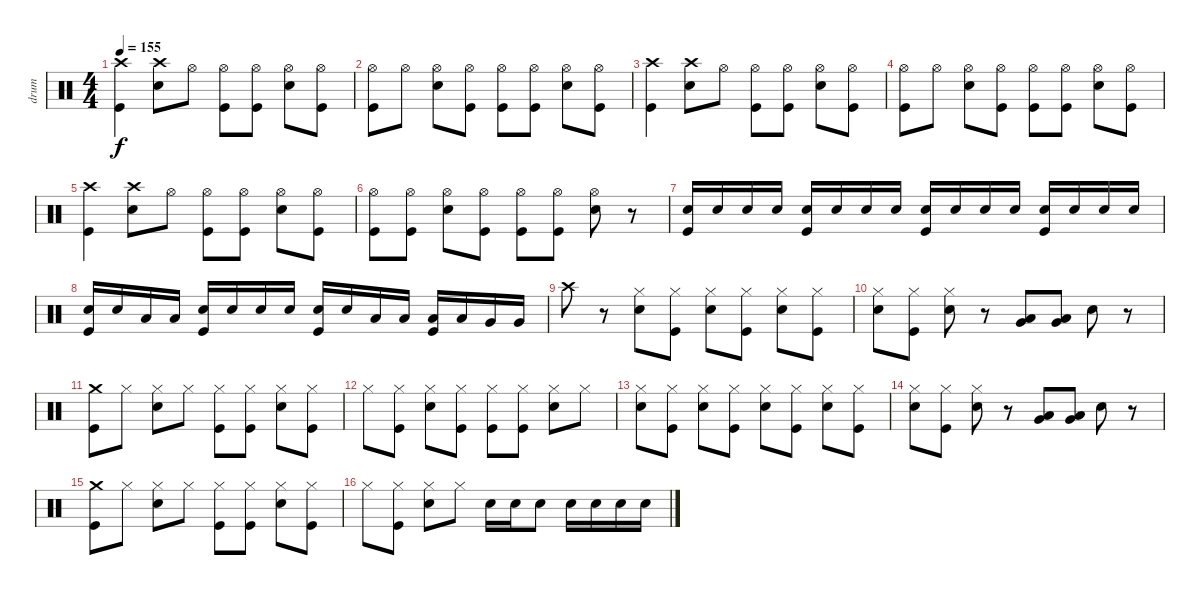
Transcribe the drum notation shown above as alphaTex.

\track ("drum" "drum") {instrument percussion}
\staff {score}
\articulation defaults
\ts (4 4)
\tempo 155
\clef neutral
\ks c
("Crash high (hit)" "Kick (hit)").4{dy f} ("Crash high (hit)" "Snare (hit) 2").8 "Hi-Hat (open)".8 ("Hi-Hat (open)" "Kick (hit)").8 ("Hi-Hat (open)" "Kick (hit)").8 ("Hi-Hat (open)" "Snare (hit) 2").8 ("Hi-Hat (open)" "Kick (hit)").8 |
("Hi-Hat (open)" "Kick (hit)").8 "Hi-Hat (open)".8 ("Hi-Hat (open)" "Snare (hit) 2").8 ("Hi-Hat (open)" "Kick (hit)").8 ("Hi-Hat (open)" "Kick (hit)").8 ("Hi-Hat (open)" "Kick (hit)").8 ("Hi-Hat (open)" "Snare (hit) 2").8 ("Hi-Hat (open)" "Kick (hit)").8 |
("Crash high (hit)" "Kick (hit)").4 ("Crash high (hit)" "Snare (hit) 2").8 "Hi-Hat (open)".8 ("Hi-Hat (open)" "Kick (hit)").8 ("Hi-Hat (open)" "Kick (hit)").8 ("Hi-Hat (open)" "Snare (hit) 2").8 ("Hi-Hat (open)" "Kick (hit)").8 |
("Hi-Hat (open)" "Kick (hit)").8 "Hi-Hat (open)".8 ("Hi-Hat (open)" "Snare (hit) 2").8 ("Hi-Hat (open)" "Kick (hit)").8 ("Hi-Hat (open)" "Kick (hit)").8 ("Hi-Hat (open)" "Kick (hit)").8 ("Hi-Hat (open)" "Snare (hit) 2").8 ("Hi-Hat (open)" "Kick (hit)").8 |
("Crash high (hit)" "Kick (hit)").4 ("Crash high (hit)" "Snare (hit) 2").8 "Hi-Hat (open)".8 ("Hi-Hat (open)" "Kick (hit)").8 ("Hi-Hat (open)" "Kick (hit)").8 ("Hi-Hat (open)" "Snare (hit) 2").8 ("Hi-Hat (open)" "Kick (hit)").8 |
("Hi-Hat (open)" "Kick (hit)").8 ("Hi-Hat (open)" "Kick (hit)").8 ("Hi-Hat (open)" "Snare (hit) 2").8 ("Hi-Hat (open)" "Kick (hit)").8 ("Hi-Hat (open)" "Kick (hit)").8 ("Hi-Hat (open)" "Kick (hit)").8 ("Hi-Hat (open)" "Snare (hit) 2").8 r.8 |
("Snare (hit) 2" "Kick (hit)").16 "Snare (hit) 2".16 "Snare (hit) 2".16 "Snare (hit) 2".16 ("Snare (hit) 2" "Kick (hit)").16 "Snare (hit) 2".16 "Snare (hit) 2".16 "Snare (hit) 2".16 ("Snare (hit) 2" "Kick (hit)").16 "Snare (hit) 2".16 "Snare (hit) 2".16 "Snare (hit) 2".16 ("Snare (hit) 2" "Kick (hit)").16 "Snare (hit) 2".16 "Snare (hit) 2".16 "Snare (hit) 2".16 |
("Snare (hit) 2" "Kick (hit)").16 "Snare (hit) 2".16 "Low Tom (hit)".16 "Low Tom (hit)".16 ("Snare (hit) 2" "Kick (hit)").16 "Snare (hit) 2".16 "Snare (hit) 2".16 "Snare (hit) 2".16 ("Snare (hit) 2" "Kick (hit)").16 "Snare (hit) 2".16 "Low Tom (hit)".16 "Low Tom (hit)".16 ("Low Tom (hit)" "Kick (hit)").16 "Low Tom (hit)".16 "Very Low Tom (hit)".16 "Very Low Tom (hit)".16 |
"Crash high (hit)".8 r.8 ("Hi-Hat (closed)" "Snare (hit) 2").8 ("Hi-Hat (closed)" "Kick (hit)").8 ("Hi-Hat (closed)" "Snare (hit) 2").8 ("Hi-Hat (closed)" "Kick (hit)").8 ("Hi-Hat (closed)" "Snare (hit) 2").8 ("Hi-Hat (closed)" "Kick (hit)").8 |
("Hi-Hat (closed)" "Snare (hit) 2").8 ("Hi-Hat (closed)" "Kick (hit)").8 ("Hi-Hat (closed)" "Snare (hit) 2").8 r.8 ("Low Tom (hit)" "Very Low Tom (hit)").8 ("Low Tom (hit)" "Very Low Tom (hit)").8 "Snare (hit) 2".8 r.8 |
("Crash medium (hit)" "Kick (hit)").8 "Hi-Hat (closed)".8 ("Hi-Hat (closed)" "Snare (hit) 2").8 "Hi-Hat (closed)".8 ("Hi-Hat (closed)" "Kick (hit)").8 ("Hi-Hat (closed)" "Kick (hit)").8 ("Hi-Hat (closed)" "Snare (hit) 2").8 ("Hi-Hat (closed)" "Kick (hit)").8 |
"Hi-Hat (closed)".8 ("Hi-Hat (closed)" "Kick (hit)").8 ("Hi-Hat (closed)" "Snare (hit) 2").8 ("Hi-Hat (closed)" "Kick (hit)").8 ("Hi-Hat (closed)" "Kick (hit)").8 ("Hi-Hat (closed)" "Kick (hit)").8 ("Hi-Hat (closed)" "Snare (hit) 2").8 "Hi-Hat (closed)".8 |
("Hi-Hat (closed)" "Snare (hit) 2").8 ("Hi-Hat (closed)" "Kick (hit)").8 ("Hi-Hat (closed)" "Snare (hit) 2").8 ("Hi-Hat (closed)" "Kick (hit)").8 ("Hi-Hat (closed)" "Snare (hit) 2").8 ("Hi-Hat (closed)" "Kick (hit)").8 ("Hi-Hat (closed)" "Snare (hit) 2").8 ("Hi-Hat (closed)" "Kick (hit)").8 |
("Hi-Hat (closed)" "Snare (hit) 2").8 ("Hi-Hat (closed)" "Kick (hit)").8 ("Hi-Hat (closed)" "Snare (hit) 2").8 r.8 ("Low Tom (hit)" "Very Low Tom (hit)").8 ("Low Tom (hit)" "Very Low Tom (hit)").8 "Snare (hit) 2".8 r.8 |
("Crash medium (hit)" "Kick (hit)").8 "Hi-Hat (closed)".8 ("Hi-Hat (closed)" "Snare (hit) 2").8 "Hi-Hat (closed)".8 ("Hi-Hat (closed)" "Kick (hit)").8 ("Hi-Hat (closed)" "Kick (hit)").8 ("Hi-Hat (closed)" "Snare (hit) 2").8 ("Hi-Hat (closed)" "Kick (hit)").8 |
"Hi-Hat (closed)".8 ("Hi-Hat (closed)" "Kick (hit)").8 ("Hi-Hat (closed)" "Snare (hit) 2").8 "Hi-Hat (closed)".8 "Snare (hit) 2".16 "Snare (hit) 2".16 "Snare (hit) 2".8 "Snare (hit) 2".16 "Snare (hit) 2".16 "Snare (hit) 2".16 "Snare (hit) 2".16
